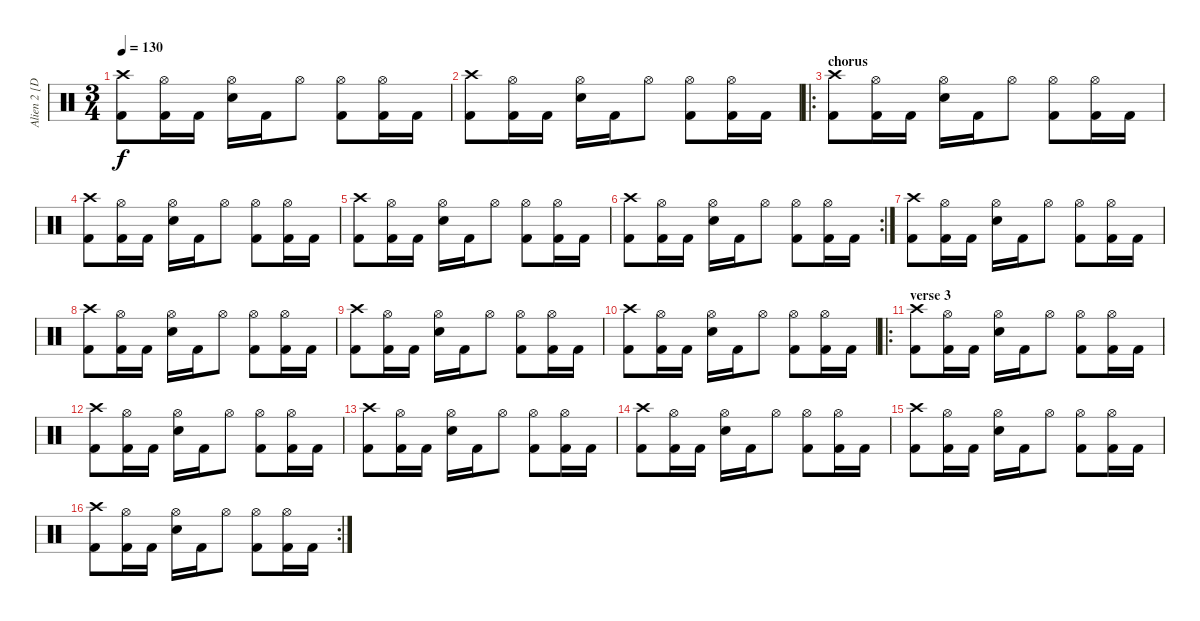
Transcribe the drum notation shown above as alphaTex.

\track ("Alien 2 [Drums]" "Alien 2 [D") {instrument percussion}
\staff {score}
\articulation defaults
\ts (3 4)
\tempo 130
\clef neutral
\ks c
("Crash high (hit)" "Kick (hit) 2").8{dy f} ("Hi-Hat (open)" "Kick (hit) 2").16 "Kick (hit) 2".16 ("Hi-Hat (open)" "Electric Snare (hit)").16 "Kick (hit) 2".16 "Hi-Hat (open)".8 ("Hi-Hat (open)" "Kick (hit) 2").8 ("Hi-Hat (open)" "Kick (hit) 2").16 "Kick (hit) 2".16 |
("Crash high (hit)" "Kick (hit) 2").8 ("Hi-Hat (open)" "Kick (hit) 2").16 "Kick (hit) 2".16 ("Hi-Hat (open)" "Electric Snare (hit)").16 "Kick (hit) 2".16 "Hi-Hat (open)".8 ("Hi-Hat (open)" "Kick (hit) 2").8 ("Hi-Hat (open)" "Kick (hit) 2").16 "Kick (hit) 2".16 |
\ro
\section ("" "chorus")
("Crash high (hit)" "Kick (hit) 2").8 ("Hi-Hat (open)" "Kick (hit) 2").16 "Kick (hit) 2".16 ("Hi-Hat (open)" "Electric Snare (hit)").16 "Kick (hit) 2".16 "Hi-Hat (open)".8 ("Hi-Hat (open)" "Kick (hit) 2").8 ("Hi-Hat (open)" "Kick (hit) 2").16 "Kick (hit) 2".16 |
("Crash high (hit)" "Kick (hit) 2").8 ("Hi-Hat (open)" "Kick (hit) 2").16 "Kick (hit) 2".16 ("Hi-Hat (open)" "Electric Snare (hit)").16 "Kick (hit) 2".16 "Hi-Hat (open)".8 ("Hi-Hat (open)" "Kick (hit) 2").8 ("Hi-Hat (open)" "Kick (hit) 2").16 "Kick (hit) 2".16 |
("Crash high (hit)" "Kick (hit) 2").8 ("Hi-Hat (open)" "Kick (hit) 2").16 "Kick (hit) 2".16 ("Hi-Hat (open)" "Electric Snare (hit)").16 "Kick (hit) 2".16 "Hi-Hat (open)".8 ("Hi-Hat (open)" "Kick (hit) 2").8 ("Hi-Hat (open)" "Kick (hit) 2").16 "Kick (hit) 2".16 |
\rc 2
("Crash high (hit)" "Kick (hit) 2").8 ("Hi-Hat (open)" "Kick (hit) 2").16 "Kick (hit) 2".16 ("Hi-Hat (open)" "Electric Snare (hit)").16 "Kick (hit) 2".16 "Hi-Hat (open)".8 ("Hi-Hat (open)" "Kick (hit) 2").8 ("Hi-Hat (open)" "Kick (hit) 2").16 "Kick (hit) 2".16 |
("Crash high (hit)" "Kick (hit) 2").8 ("Hi-Hat (open)" "Kick (hit) 2").16 "Kick (hit) 2".16 ("Hi-Hat (open)" "Electric Snare (hit)").16 "Kick (hit) 2".16 "Hi-Hat (open)".8 ("Hi-Hat (open)" "Kick (hit) 2").8 ("Hi-Hat (open)" "Kick (hit) 2").16 "Kick (hit) 2".16 |
("Crash high (hit)" "Kick (hit) 2").8 ("Hi-Hat (open)" "Kick (hit) 2").16 "Kick (hit) 2".16 ("Hi-Hat (open)" "Electric Snare (hit)").16 "Kick (hit) 2".16 "Hi-Hat (open)".8 ("Hi-Hat (open)" "Kick (hit) 2").8 ("Hi-Hat (open)" "Kick (hit) 2").16 "Kick (hit) 2".16 |
("Crash high (hit)" "Kick (hit) 2").8 ("Hi-Hat (open)" "Kick (hit) 2").16 "Kick (hit) 2".16 ("Hi-Hat (open)" "Electric Snare (hit)").16 "Kick (hit) 2".16 "Hi-Hat (open)".8 ("Hi-Hat (open)" "Kick (hit) 2").8 ("Hi-Hat (open)" "Kick (hit) 2").16 "Kick (hit) 2".16 |
("Crash high (hit)" "Kick (hit) 2").8 ("Hi-Hat (open)" "Kick (hit) 2").16 "Kick (hit) 2".16 ("Hi-Hat (open)" "Electric Snare (hit)").16 "Kick (hit) 2".16 "Hi-Hat (open)".8 ("Hi-Hat (open)" "Kick (hit) 2").8 ("Hi-Hat (open)" "Kick (hit) 2").16 "Kick (hit) 2".16 |
\ro
\section ("" "verse 3")
("Crash high (hit)" "Kick (hit) 2").8 ("Hi-Hat (open)" "Kick (hit) 2").16 "Kick (hit) 2".16 ("Hi-Hat (open)" "Electric Snare (hit)").16 "Kick (hit) 2".16 "Hi-Hat (open)".8 ("Hi-Hat (open)" "Kick (hit) 2").8 ("Hi-Hat (open)" "Kick (hit) 2").16 "Kick (hit) 2".16 |
("Crash high (hit)" "Kick (hit) 2").8 ("Hi-Hat (open)" "Kick (hit) 2").16 "Kick (hit) 2".16 ("Hi-Hat (open)" "Electric Snare (hit)").16 "Kick (hit) 2".16 "Hi-Hat (open)".8 ("Hi-Hat (open)" "Kick (hit) 2").8 ("Hi-Hat (open)" "Kick (hit) 2").16 "Kick (hit) 2".16 |
("Crash high (hit)" "Kick (hit) 2").8 ("Hi-Hat (open)" "Kick (hit) 2").16 "Kick (hit) 2".16 ("Hi-Hat (open)" "Electric Snare (hit)").16 "Kick (hit) 2".16 "Hi-Hat (open)".8 ("Hi-Hat (open)" "Kick (hit) 2").8 ("Hi-Hat (open)" "Kick (hit) 2").16 "Kick (hit) 2".16 |
("Crash high (hit)" "Kick (hit) 2").8 ("Hi-Hat (open)" "Kick (hit) 2").16 "Kick (hit) 2".16 ("Hi-Hat (open)" "Electric Snare (hit)").16 "Kick (hit) 2".16 "Hi-Hat (open)".8 ("Hi-Hat (open)" "Kick (hit) 2").8 ("Hi-Hat (open)" "Kick (hit) 2").16 "Kick (hit) 2".16 |
("Crash high (hit)" "Kick (hit) 2").8 ("Hi-Hat (open)" "Kick (hit) 2").16 "Kick (hit) 2".16 ("Hi-Hat (open)" "Electric Snare (hit)").16 "Kick (hit) 2".16 "Hi-Hat (open)".8 ("Hi-Hat (open)" "Kick (hit) 2").8 ("Hi-Hat (open)" "Kick (hit) 2").16 "Kick (hit) 2".16 |
\rc 2
("Crash high (hit)" "Kick (hit) 2").8 ("Hi-Hat (open)" "Kick (hit) 2").16 "Kick (hit) 2".16 ("Hi-Hat (open)" "Electric Snare (hit)").16 "Kick (hit) 2".16 "Hi-Hat (open)".8 ("Hi-Hat (open)" "Kick (hit) 2").8 ("Hi-Hat (open)" "Kick (hit) 2").16 "Kick (hit) 2".16
